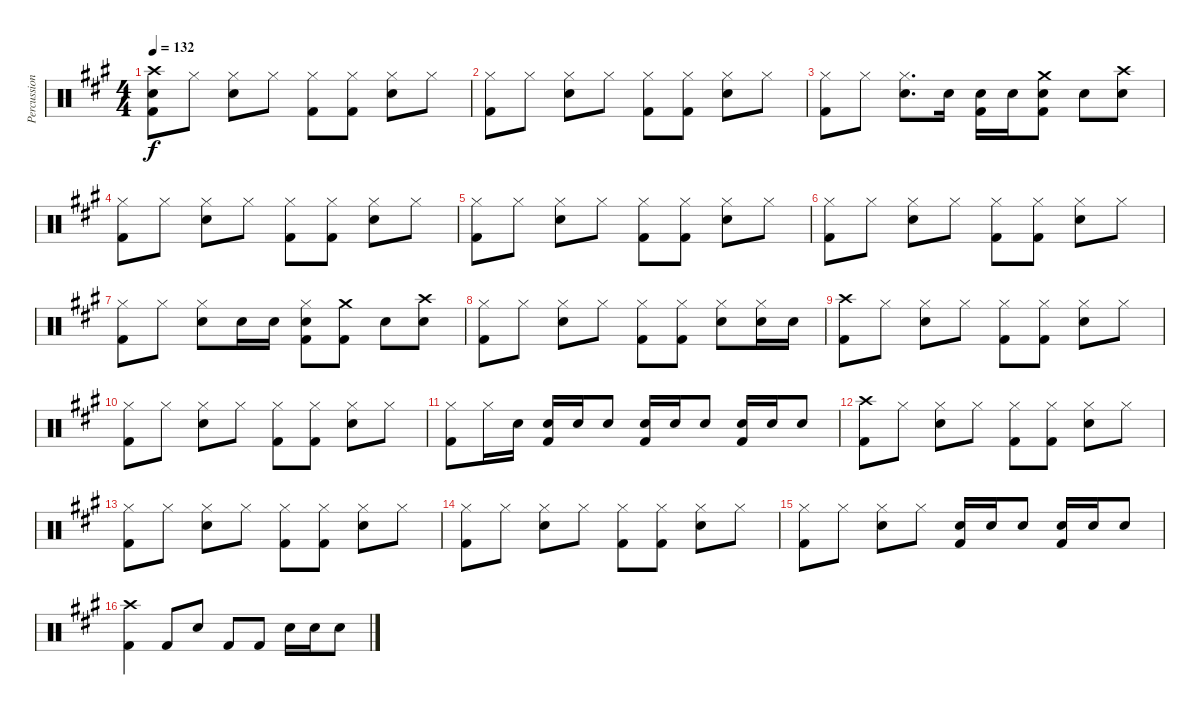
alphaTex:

\track ("Percussion" "Percussion") {instrument percussion}
\staff {score}
\articulation defaults
\ts (4 4)
\tempo 132
\clef neutral
\ks a
("Crash high (hit)" "Snare (hit) 2" "Kick (hit) 2").8{dy f} "Hi-Hat (closed)".8 ("Hi-Hat (closed)" "Snare (hit) 2").8 "Hi-Hat (closed)".8 ("Hi-Hat (closed)" "Kick (hit) 2").8 ("Hi-Hat (closed)" "Kick (hit) 2").8 ("Hi-Hat (closed)" "Snare (hit) 2").8 "Hi-Hat (closed)".8 |
("Hi-Hat (closed)" "Kick (hit) 2").8 "Hi-Hat (closed)".8 ("Hi-Hat (closed)" "Snare (hit) 2").8 "Hi-Hat (closed)".8 ("Hi-Hat (closed)" "Kick (hit) 2").8 ("Hi-Hat (closed)" "Kick (hit) 2").8 ("Hi-Hat (closed)" "Snare (hit) 2").8 "Hi-Hat (closed)".8 |
("Hi-Hat (closed)" "Kick (hit) 2").8 "Hi-Hat (closed)".8 ("Hi-Hat (closed)" "Snare (hit) 2").8{d} "Snare (hit) 2".16 ("Snare (hit) 2" "Kick (hit) 2").16 "Snare (hit) 2".16 ("Crash medium (hit)" "Snare (hit) 2" "Kick (hit) 2").8 "Snare (hit) 2".8 ("Crash high (hit)" "Snare (hit) 2").8 |
("Hi-Hat (closed)" "Kick (hit) 2").8 "Hi-Hat (closed)".8 ("Hi-Hat (closed)" "Snare (hit) 2").8 "Hi-Hat (closed)".8 ("Hi-Hat (closed)" "Kick (hit) 2").8 ("Hi-Hat (closed)" "Kick (hit) 2").8 ("Hi-Hat (closed)" "Snare (hit) 2").8 "Hi-Hat (closed)".8 |
("Hi-Hat (closed)" "Kick (hit) 2").8 "Hi-Hat (closed)".8 ("Hi-Hat (closed)" "Snare (hit) 2").8 "Hi-Hat (closed)".8 ("Hi-Hat (closed)" "Kick (hit) 2").8 ("Hi-Hat (closed)" "Kick (hit) 2").8 ("Hi-Hat (closed)" "Snare (hit) 2").8 "Hi-Hat (closed)".8 |
("Hi-Hat (closed)" "Kick (hit) 2").8 "Hi-Hat (closed)".8 ("Hi-Hat (closed)" "Snare (hit) 2").8 "Hi-Hat (closed)".8 ("Hi-Hat (closed)" "Kick (hit) 2").8 ("Hi-Hat (closed)" "Kick (hit) 2").8 ("Hi-Hat (closed)" "Snare (hit) 2").8 "Hi-Hat (closed)".8 |
("Hi-Hat (closed)" "Kick (hit) 2").8 "Hi-Hat (closed)".8 ("Hi-Hat (closed)" "Snare (hit) 2").8 "Snare (hit) 2".16 "Snare (hit) 2".16 ("Hi-Hat (closed)" "Snare (hit) 2" "Kick (hit) 2").8 ("Crash medium (hit)" "Kick (hit) 2").8 "Snare (hit) 2".8 ("Crash high (hit)" "Snare (hit) 2").8 |
("Hi-Hat (closed)" "Kick (hit) 2").8 "Hi-Hat (closed)".8 ("Hi-Hat (closed)" "Snare (hit) 2").8 "Hi-Hat (closed)".8 ("Hi-Hat (closed)" "Kick (hit) 2").8 ("Hi-Hat (closed)" "Kick (hit) 2").8 ("Hi-Hat (closed)" "Snare (hit) 2").8 ("Hi-Hat (closed)" "Snare (hit) 2").16 "Snare (hit) 2".16 |
("Crash high (hit)" "Kick (hit) 2").8 "Hi-Hat (closed)".8 ("Hi-Hat (closed)" "Snare (hit) 2").8 "Hi-Hat (closed)".8 ("Hi-Hat (closed)" "Kick (hit) 2").8 ("Hi-Hat (closed)" "Kick (hit) 2").8 ("Hi-Hat (closed)" "Snare (hit) 2").8 "Hi-Hat (closed)".8 |
("Hi-Hat (closed)" "Kick (hit) 2").8 "Hi-Hat (closed)".8 ("Hi-Hat (closed)" "Snare (hit) 2").8 "Hi-Hat (closed)".8 ("Hi-Hat (closed)" "Kick (hit) 2").8 ("Hi-Hat (closed)" "Kick (hit) 2").8 ("Hi-Hat (closed)" "Snare (hit) 2").8 "Hi-Hat (closed)".8 |
("Hi-Hat (closed)" "Kick (hit) 2").8 "Hi-Hat (closed)".16 "Snare (hit) 2".16 ("Snare (hit) 2" "Kick (hit) 2").16 "Snare (hit) 2".16 "Snare (hit) 2".8 ("Snare (hit) 2" "Kick (hit) 2").16 "Snare (hit) 2".16 "Snare (hit) 2".8 ("Snare (hit) 2" "Kick (hit) 2").16 "Snare (hit) 2".16 "Snare (hit) 2".8 |
("Crash high (hit)" "Kick (hit) 2").8 "Hi-Hat (closed)".8 ("Hi-Hat (closed)" "Snare (hit) 2").8 "Hi-Hat (closed)".8 ("Hi-Hat (closed)" "Kick (hit) 2").8 ("Hi-Hat (closed)" "Kick (hit) 2").8 ("Hi-Hat (closed)" "Snare (hit) 2").8 "Hi-Hat (closed)".8 |
("Hi-Hat (closed)" "Kick (hit) 2").8 "Hi-Hat (closed)".8 ("Hi-Hat (closed)" "Snare (hit) 2").8 "Hi-Hat (closed)".8 ("Hi-Hat (closed)" "Kick (hit) 2").8 ("Hi-Hat (closed)" "Kick (hit) 2").8 ("Hi-Hat (closed)" "Snare (hit) 2").8 "Hi-Hat (closed)".8 |
("Hi-Hat (closed)" "Kick (hit) 2").8 "Hi-Hat (closed)".8 ("Hi-Hat (closed)" "Snare (hit) 2").8 "Hi-Hat (closed)".8 ("Hi-Hat (closed)" "Kick (hit) 2").8 ("Hi-Hat (closed)" "Kick (hit) 2").8 ("Hi-Hat (closed)" "Snare (hit) 2").8 "Hi-Hat (closed)".8 |
("Hi-Hat (closed)" "Kick (hit) 2").8 "Hi-Hat (closed)".8 ("Hi-Hat (closed)" "Snare (hit) 2").8 "Hi-Hat (closed)".8 ("Snare (hit) 2" "Kick (hit) 2").16 "Snare (hit) 2".16 "Snare (hit) 2".8 ("Snare (hit) 2" "Kick (hit) 2").16 "Snare (hit) 2".16 "Snare (hit) 2".8 |
("Crash high (hit)" "Kick (hit) 2").4 "Kick (hit) 2".8 "Snare (hit) 2".8 "Kick (hit) 2".8 "Kick (hit) 2".8 "Snare (hit) 2".16 "Snare (hit) 2".16 "Snare (hit) 2".8
